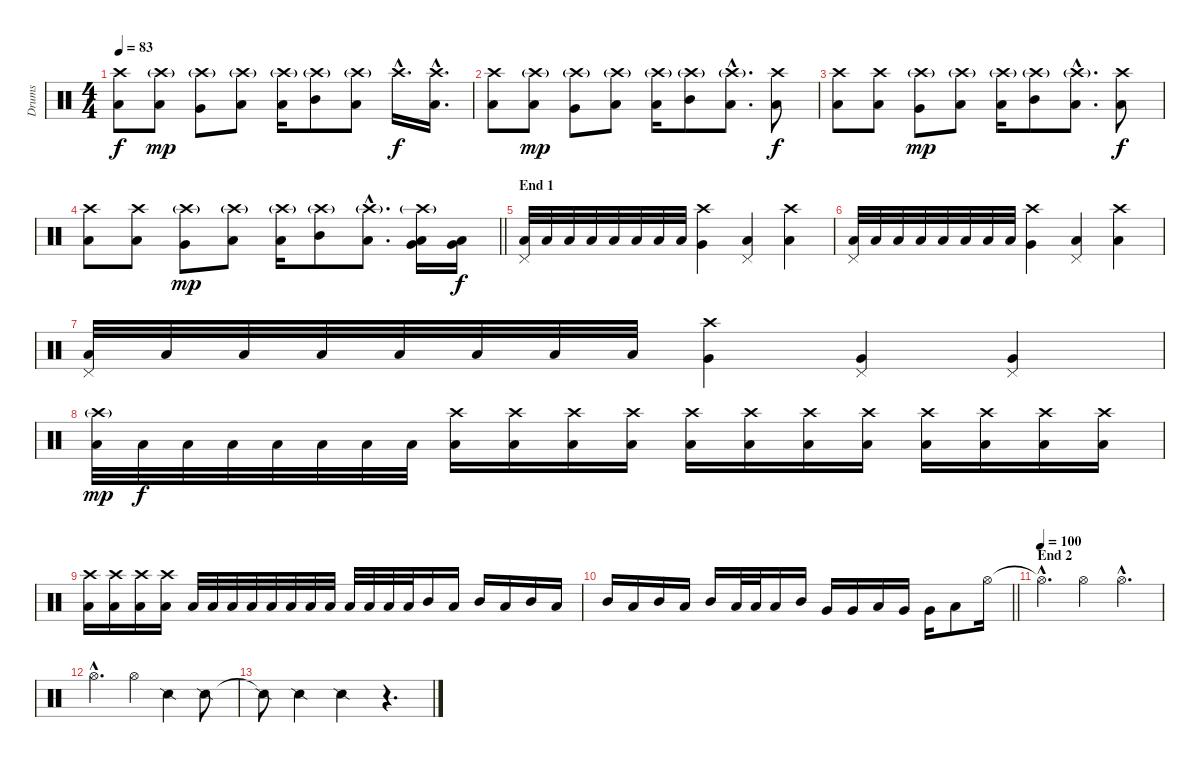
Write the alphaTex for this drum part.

\track ("Drums" "Drums") {instrument percussion}
\staff {score}
\articulation defaults
\ts (4 4)
\tempo 83
\clef neutral
\ks c
("Crash high (hit)" "Low Floor Tom (hit)").8{dy f} ("Crash high (hit)"{g} "Low Tom (hit)").8{dy mp} ("Crash high (hit)"{g} "Very Low Tom (hit)").8 ("Crash high (hit)"{g} "Low Floor Tom (hit)").8 ("Crash high (hit)"{g} "Low Tom (hit)").16 ("Crash high (hit)"{g} "Mid Tom (hit)").8 ("Crash high (hit)"{g} "Low Tom (hit)").8 "Crash high (hit)"{hac}.16{d dy f} ("Crash high (hit)"{hac} "Low Floor Tom (hit)"{hac}).16{d} |
("Crash high (hit)" "Low Floor Tom (hit)").8 ("Crash high (hit)"{g} "Low Tom (hit)").8{dy mp} ("Crash high (hit)"{g} "Very Low Tom (hit)").8 ("Crash high (hit)"{g} "Low Floor Tom (hit)").8 ("Crash high (hit)"{g} "Low Tom (hit)").16 ("Crash high (hit)"{g} "Mid Tom (hit)").8 ("Crash high (hit)"{g hac} "Low Tom (hit)"{hac}).8{d} ("Crash high (hit)" "Low Floor Tom (hit)").8{dy f} |
("Crash high (hit)" "Low Floor Tom (hit)").8 ("Crash high (hit)" "Low Tom (hit)").8 ("Crash high (hit)"{g} "Very Low Tom (hit)").8{dy mp} ("Crash high (hit)"{g} "Low Floor Tom (hit)").8 ("Crash high (hit)"{g} "Low Tom (hit)").16 ("Crash high (hit)"{g} "Mid Tom (hit)").8 ("Crash high (hit)"{g hac} "Low Tom (hit)"{hac}).8{d} ("Crash high (hit)" "Low Floor Tom (hit)").8{dy f} |
\barLineRight lightlight
("Crash high (hit)" "Low Floor Tom (hit)").8 ("Crash high (hit)" "Low Tom (hit)").8 ("Crash high (hit)"{g} "Very Low Tom (hit)").8{dy mp} ("Crash high (hit)"{g} "Low Floor Tom (hit)").8 ("Crash high (hit)"{g} "Low Tom (hit)").16 ("Crash high (hit)"{g} "Mid Tom (hit)").8 ("Crash high (hit)"{g hac} "Low Tom (hit)"{hac}).8{d} ("Crash high (hit)"{g} "Very Low Tom (hit)" "Low Floor Tom (hit)").16 ("Very Low Tom (hit)" "Low Floor Tom (hit)").16{dy f} |
\section ("" "End 1")
("Pedal Hi-Hat (hit)" "Low Floor Tom (hit)").32 "Low Floor Tom (hit)".32 "Low Floor Tom (hit)".32 "Low Floor Tom (hit)".32 "Low Floor Tom (hit)".32 "Low Floor Tom (hit)".32 "Low Floor Tom (hit)".32 "Low Floor Tom (hit)".32 ("Crash high (hit)" "Very Low Tom (hit)").4 ("Pedal Hi-Hat (hit)" "Low Tom (hit)").4 ("Crash high (hit)" "Low Tom (hit)").4 |
("Pedal Hi-Hat (hit)" "Low Floor Tom (hit)").32 "Low Floor Tom (hit)".32 "Low Floor Tom (hit)".32 "Low Floor Tom (hit)".32 "Low Floor Tom (hit)".32 "Low Floor Tom (hit)".32 "Low Floor Tom (hit)".32 "Low Floor Tom (hit)".32 ("Crash high (hit)" "Very Low Tom (hit)").4 ("Pedal Hi-Hat (hit)" "Low Tom (hit)").4 ("Crash high (hit)" "Low Tom (hit)").4 |
("Pedal Hi-Hat (hit)" "Low Floor Tom (hit)").32 "Low Floor Tom (hit)".32 "Low Floor Tom (hit)".32 "Low Floor Tom (hit)".32 "Low Floor Tom (hit)".32 "Low Floor Tom (hit)".32 "Low Floor Tom (hit)".32 "Low Floor Tom (hit)".32 ("Crash high (hit)" "Very Low Tom (hit)").4 ("Pedal Hi-Hat (hit)" "Very Low Tom (hit)").4 ("Pedal Hi-Hat (hit)" "Very Low Tom (hit)").4 |
("Crash high (hit)"{g} "Low Floor Tom (hit)").32{dy mp} "Low Floor Tom (hit)".32{dy f} "Low Floor Tom (hit)".32 "Low Floor Tom (hit)".32 "Low Floor Tom (hit)".32 "Low Floor Tom (hit)".32 "Low Floor Tom (hit)".32 "Low Floor Tom (hit)".32 ("Crash high (hit)" "Low Tom (hit)").16 ("Crash high (hit)" "Low Tom (hit)").16 ("Crash high (hit)" "Low Tom (hit)").16 ("Crash high (hit)" "Low Tom (hit)").16 ("Crash high (hit)" "Low Tom (hit)").16 ("Crash high (hit)" "Low Tom (hit)").16 ("Crash high (hit)" "Low Tom (hit)").16 ("Crash high (hit)" "Low Tom (hit)").16 ("Crash high (hit)" "Low Tom (hit)").16 ("Crash high (hit)" "Low Tom (hit)").16 ("Crash high (hit)" "Low Tom (hit)").16 ("Crash high (hit)" "Low Tom (hit)").16 |
("Crash high (hit)" "Low Tom (hit)").16 ("Crash high (hit)" "Low Tom (hit)").16 ("Crash high (hit)" "Low Tom (hit)").16 ("Crash high (hit)" "Low Tom (hit)").16 "Low Floor Tom (hit)".32 "Low Floor Tom (hit)".32 "Low Floor Tom (hit)".32 "Low Floor Tom (hit)".32 "Low Floor Tom (hit)".32 "Low Floor Tom (hit)".32 "Low Floor Tom (hit)".32 "Low Floor Tom (hit)".32 "Low Floor Tom (hit)".32 "Low Floor Tom (hit)".32 "Low Floor Tom (hit)".32 "Low Floor Tom (hit)".32 "Mid Tom (hit)".16 "Low Tom (hit)".16 "Mid Tom (hit)".16 "Low Tom (hit)".16 "Mid Tom (hit)".16 "Low Tom (hit)".16 |
\barLineRight lightlight "Mid Tom (hit)".16 "Low Tom (hit)".16 "Mid Tom (hit)".16 "Low Tom (hit)".16 "Mid Tom (hit)".16 "Low Tom (hit)".32 "Low Tom (hit)".32 "Low Tom (hit)".16 "Mid Tom (hit)".16 "Very Low Tom (hit)".16 "Very Low Tom (hit)".16 "Low Tom (hit)".16 "Very Low Tom (hit)".16 "Very Low Tom (hit)".16 "Low Floor Tom (hit)".8 "Hi-Hat (open)".16
|
\section ("" "End 2")
\tempo (100)
"Hi-Hat (open)"{hac t}.4{d} "Hi-Hat (open)".4 "Hi-Hat (open)"{hac}.4{d} |
"Hi-Hat (open)"{hac}.4{d volume 6} "Hi-Hat (open)".4 "Snare (side stick) 2".4 "Snare (side stick) 2".8 |
"Snare (side stick) 2"{t}.8 "Snare (side stick) 2".4 "Snare (side stick) 2".4 r.4{d}
